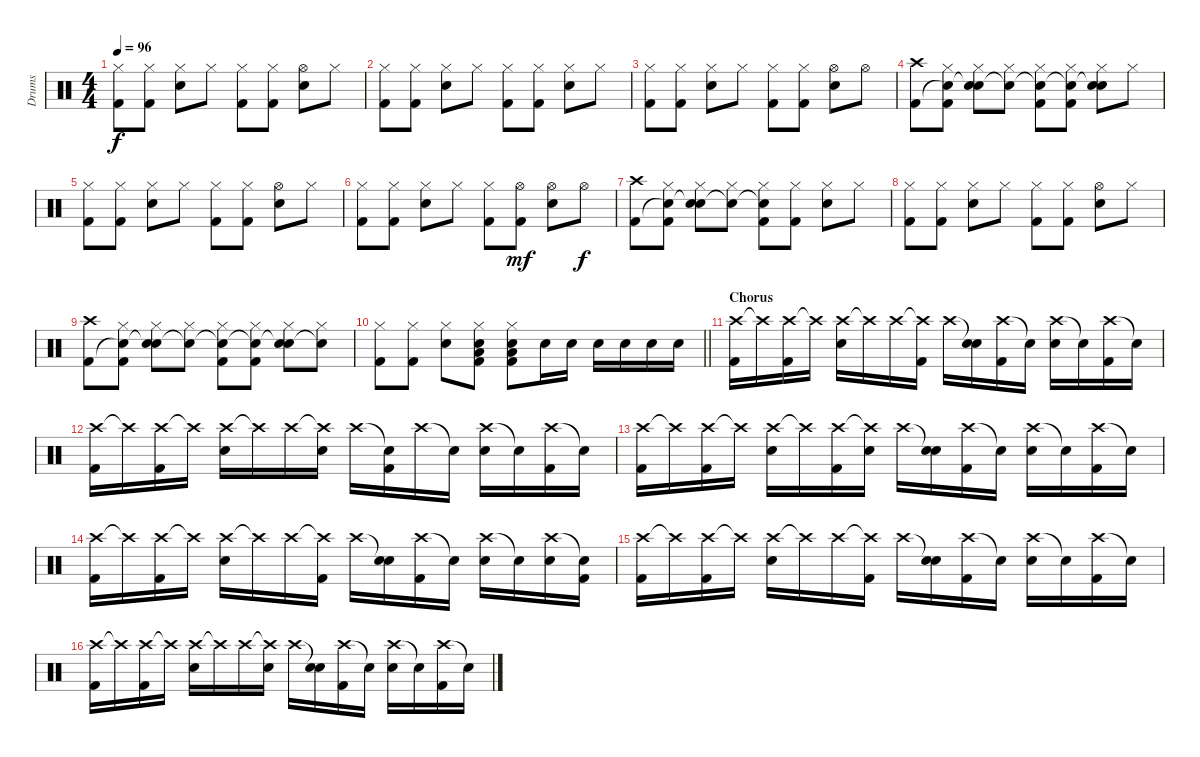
\track ("Drums" "Drums") {instrument percussion}
\staff {score}
\articulation defaults
\ts (4 4)
\tempo 96
\clef neutral
\ks aminor
("Hi-Hat (closed)" "Kick (hit) 2").8{dy f} ("Hi-Hat (closed)" "Kick (hit) 2").8 ("Hi-Hat (closed)" "Snare (hit) 2").8 "Hi-Hat (closed)".8 ("Hi-Hat (closed)" "Kick (hit) 2").8 ("Hi-Hat (closed)" "Kick (hit) 2").8 ("Hi-Hat (open)" "Snare (hit) 2").8 "Hi-Hat (closed)".8 |
("Hi-Hat (closed)" "Kick (hit) 2").8 ("Hi-Hat (closed)" "Kick (hit) 2").8 ("Hi-Hat (closed)" "Snare (hit) 2").8 "Hi-Hat (closed)".8 ("Hi-Hat (closed)" "Kick (hit) 2").8 ("Hi-Hat (closed)" "Kick (hit) 2").8 ("Hi-Hat (closed)" "Snare (hit) 2").8 "Hi-Hat (closed)".8 |
("Hi-Hat (closed)" "Kick (hit) 2").8 ("Hi-Hat (closed)" "Kick (hit) 2").8 ("Hi-Hat (closed)" "Snare (hit) 2").8 "Hi-Hat (closed)".8 ("Hi-Hat (closed)" "Kick (hit) 2").8 ("Hi-Hat (closed)" "Kick (hit) 2").8 ("Hi-Hat (open)" "Snare (hit) 2").8 "Hi-Hat (open)".8 |
("Crash high (hit)" "Kick (hit) 2").8 ("Hi-Hat (closed)" "Snare (hit)"{t} "Kick (hit) 2").8 ("Hi-Hat (closed)" "Snare (hit)"{t} "Snare (hit) 2").8 ("Hi-Hat (closed)" "Snare (hit)"{t}).8 ("Hi-Hat (closed)" "Snare (hit)"{t} "Kick (hit) 2").8 ("Hi-Hat (closed)" "Snare (hit)"{t} "Kick (hit) 2").8 ("Hi-Hat (closed)" "Snare (hit)"{t} "Snare (hit) 2").8 "Hi-Hat (closed)".8 |
("Hi-Hat (closed)" "Kick (hit) 2").8 ("Hi-Hat (closed)" "Kick (hit) 2").8 ("Hi-Hat (closed)" "Snare (hit) 2").8 "Hi-Hat (closed)".8 ("Hi-Hat (closed)" "Kick (hit) 2").8 ("Hi-Hat (closed)" "Kick (hit) 2").8 ("Hi-Hat (open)" "Snare (hit) 2").8 "Hi-Hat (closed)".8 |
("Hi-Hat (closed)" "Kick (hit) 2").8 ("Hi-Hat (closed)" "Kick (hit) 2").8 ("Hi-Hat (closed)" "Snare (hit) 2").8 "Hi-Hat (closed)".8 ("Hi-Hat (closed)" "Kick (hit) 2").8 ("Hi-Hat (open)" "Kick (hit) 2").8{dy mf} ("Hi-Hat (open)" "Snare (hit) 2").8 "Hi-Hat (open)".8{dy f} |
("Crash high (hit)" "Kick (hit) 2").8 ("Hi-Hat (closed)" "Snare (hit)"{t} "Kick (hit) 2").8 ("Hi-Hat (closed)" "Snare (hit)"{t} "Snare (hit) 2").8 ("Hi-Hat (closed)" "Snare (hit)"{t}).8 ("Hi-Hat (closed)" "Snare (hit)"{t} "Kick (hit) 2").8 ("Hi-Hat (closed)" "Kick (hit) 2").8 ("Hi-Hat (closed)" "Snare (hit) 2").8 "Hi-Hat (closed)".8 |
("Hi-Hat (closed)" "Kick (hit) 2").8 ("Hi-Hat (closed)" "Kick (hit) 2").8 ("Hi-Hat (closed)" "Snare (hit) 2").8 "Hi-Hat (closed)".8 ("Hi-Hat (closed)" "Kick (hit) 2").8 ("Hi-Hat (closed)" "Kick (hit) 2").8 ("Hi-Hat (open)" "Snare (hit) 2").8 "Hi-Hat (closed)".8 |
("Crash high (hit)" "Kick (hit) 2").8 ("Hi-Hat (closed)" "Snare (hit)"{t} "Kick (hit) 2").8 ("Hi-Hat (closed)" "Snare (hit)"{t} "Snare (hit) 2").8 ("Hi-Hat (closed)" "Snare (hit)"{t}).8 ("Hi-Hat (closed)" "Snare (hit)"{t} "Kick (hit) 2").8 ("Hi-Hat (closed)" "Snare (hit)"{t} "Kick (hit) 2").8 ("Hi-Hat (closed)" "Snare (hit)"{t} "Snare (hit) 2").8 ("Hi-Hat (closed)" "Snare (hit)"{t}).8 |
\barLineRight lightlight
("Hi-Hat (closed)" "Kick (hit) 2").8 ("Hi-Hat (closed)" "Kick (hit) 2").8 ("Hi-Hat (closed)" "Snare (hit) 2").8 ("Hi-Hat (closed)" "Snare (hit) 2" "Low Floor Tom (hit)" "Kick (hit) 2").8 ("Hi-Hat (closed)" "Snare (hit) 2" "Low Floor Tom (hit)" "Kick (hit) 2").8 "Snare (hit) 2".16 "Snare (hit) 2".16 "Snare (hit) 2".16 "Snare (hit) 2".16 "Snare (hit) 2".16 "Snare (hit) 2".16 |
\section ("" "Chorus")
("Crash high (hit)" "Kick (hit) 2").16 "Crash high (hit)"{t}.16 ("Crash high (hit)" "Kick (hit) 2").16 "Crash high (hit)"{t}.16 ("Crash high (hit)" "Snare (hit) 2").16 "Crash high (hit)"{t}.16 "Crash high (hit)".16 ("Crash high (hit)"{t} "Kick (hit) 2").16 "Crash high (hit)".16 ("Snare (hit)"{t} "Snare (hit) 2").16 ("Crash high (hit)" "Kick (hit) 2").16 "Snare (hit)"{t}.16 ("Crash high (hit)" "Snare (hit) 2").16 "Snare (hit)"{t}.16 ("Crash high (hit)" "Kick (hit) 2").16 "Snare (hit)"{t}.16 |
("Crash high (hit)" "Kick (hit) 2").16 "Crash high (hit)"{t}.16 ("Crash high (hit)" "Kick (hit) 2").16 "Crash high (hit)"{t}.16 ("Crash high (hit)" "Snare (hit) 2").16 "Crash high (hit)"{t}.16 "Crash high (hit)".16 ("Crash high (hit)"{t} "Snare (hit) 2").16 "Crash high (hit)".16 ("Snare (hit)"{t} "Kick (hit) 2").16 "Crash high (hit)".16 "Snare (hit)"{t}.16 ("Crash high (hit)" "Snare (hit) 2").16 "Snare (hit)"{t}.16 ("Crash high (hit)" "Kick (hit) 2").16 "Snare (hit)"{t}.16 |
("Crash high (hit)" "Kick (hit) 2").16 "Crash high (hit)"{t}.16 ("Crash high (hit)" "Kick (hit) 2").16 "Crash high (hit)"{t}.16 ("Crash high (hit)" "Snare (hit) 2").16 "Crash high (hit)"{t}.16 ("Crash high (hit)" "Kick (hit) 2").16 ("Crash high (hit)"{t} "Snare (hit) 2").16 "Crash high (hit)".16 ("Snare (hit)"{t} "Snare (hit) 2").16 ("Crash high (hit)" "Kick (hit) 2").16 "Snare (hit)"{t}.16 ("Crash high (hit)" "Snare (hit) 2").16 "Snare (hit)"{t}.16 ("Crash high (hit)" "Kick (hit) 2").16 "Snare (hit)"{t}.16 |
("Crash high (hit)" "Kick (hit) 2").16 "Crash high (hit)"{t}.16 ("Crash high (hit)" "Kick (hit) 2").16 "Crash high (hit)"{t}.16 ("Crash high (hit)" "Snare (hit) 2").16 "Crash high (hit)"{t}.16 "Crash high (hit)".16 ("Crash high (hit)"{t} "Kick (hit) 2").16 "Crash high (hit)".16 ("Snare (hit)"{t} "Snare (hit) 2").16 ("Crash high (hit)" "Kick (hit) 2").16 "Snare (hit)"{t}.16 ("Crash high (hit)" "Snare (hit) 2").16 "Snare (hit)"{t}.16 ("Crash high (hit)" "Snare (hit) 2").16 ("Snare (hit)"{t} "Kick (hit) 2").16 |
("Crash high (hit)" "Kick (hit) 2").16 "Crash high (hit)"{t}.16 ("Crash high (hit)" "Kick (hit) 2").16 "Crash high (hit)"{t}.16 ("Crash high (hit)" "Snare (hit) 2").16 "Crash high (hit)"{t}.16 "Crash high (hit)".16 ("Crash high (hit)"{t} "Kick (hit) 2").16 "Crash high (hit)".16 ("Snare (hit)"{t} "Snare (hit) 2").16 ("Crash high (hit)" "Kick (hit) 2").16 "Snare (hit)"{t}.16 ("Crash high (hit)" "Snare (hit) 2").16 "Snare (hit)"{t}.16 ("Crash high (hit)" "Kick (hit) 2").16 "Snare (hit)"{t}.16 |
("Crash high (hit)" "Kick (hit) 2").16 "Crash high (hit)"{t}.16 ("Crash high (hit)" "Kick (hit) 2").16 "Crash high (hit)"{t}.16 ("Crash high (hit)" "Snare (hit) 2").16 "Crash high (hit)"{t}.16 "Crash high (hit)".16 ("Crash high (hit)"{t} "Snare (hit) 2").16 "Crash high (hit)".16 ("Snare (hit)"{t} "Snare (hit) 2").16 ("Crash high (hit)" "Kick (hit) 2").16 "Snare (hit)"{t}.16 ("Crash high (hit)" "Snare (hit) 2").16 "Snare (hit)"{t}.16 ("Crash high (hit)" "Kick (hit) 2").16 "Snare (hit)"{t}.16
